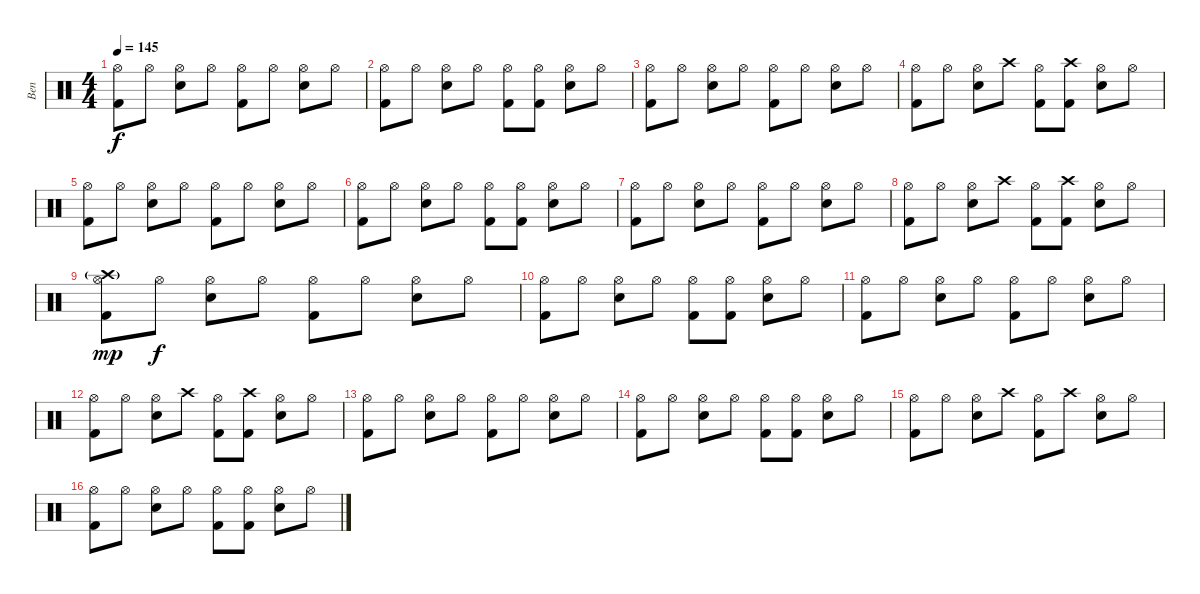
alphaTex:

\track ("Ben" "Ben") {instrument percussion}
\staff {score}
\articulation defaults
\ts (4 4)
\tempo 145
\clef neutral
\ks c
("Hi-Hat (open)" "Kick (hit) 2").8{dy f} "Hi-Hat (open)".8 ("Hi-Hat (open)" "Electric Snare (hit)").8 "Hi-Hat (open)".8 ("Hi-Hat (open)" "Kick (hit) 2").8 "Hi-Hat (open)".8 ("Hi-Hat (open)" "Electric Snare (hit)").8 "Hi-Hat (open)".8 |
("Hi-Hat (open)" "Kick (hit) 2").8 "Hi-Hat (open)".8 ("Hi-Hat (open)" "Electric Snare (hit)").8 "Hi-Hat (open)".8 ("Hi-Hat (open)" "Kick (hit) 2").8 ("Hi-Hat (open)" "Kick (hit) 2").8 ("Hi-Hat (open)" "Electric Snare (hit)").8 "Hi-Hat (open)".8 |
("Hi-Hat (open)" "Kick (hit) 2").8 "Hi-Hat (open)".8 ("Hi-Hat (open)" "Electric Snare (hit)").8 "Hi-Hat (open)".8 ("Hi-Hat (open)" "Kick (hit) 2").8 "Hi-Hat (open)".8 ("Hi-Hat (open)" "Electric Snare (hit)").8 "Hi-Hat (open)".8 |
("Hi-Hat (open)" "Kick (hit) 2").8 "Hi-Hat (open)".8 ("Hi-Hat (open)" "Electric Snare (hit)").8 "Crash high (hit)".8 ("Hi-Hat (open)" "Kick (hit) 2").8 ("Crash high (hit)" "Kick (hit) 2").8 ("Hi-Hat (open)" "Electric Snare (hit)").8 "Hi-Hat (open)".8 |
("Hi-Hat (open)" "Kick (hit) 2").8 "Hi-Hat (open)".8 ("Hi-Hat (open)" "Electric Snare (hit)").8 "Hi-Hat (open)".8 ("Hi-Hat (open)" "Kick (hit) 2").8 "Hi-Hat (open)".8 ("Hi-Hat (open)" "Electric Snare (hit)").8 "Hi-Hat (open)".8 |
("Hi-Hat (open)" "Kick (hit) 2").8 "Hi-Hat (open)".8 ("Hi-Hat (open)" "Electric Snare (hit)").8 "Hi-Hat (open)".8 ("Hi-Hat (open)" "Kick (hit) 2").8 ("Hi-Hat (open)" "Kick (hit) 2").8 ("Hi-Hat (open)" "Electric Snare (hit)").8 "Hi-Hat (open)".8 |
("Hi-Hat (open)" "Kick (hit) 2").8 "Hi-Hat (open)".8 ("Hi-Hat (open)" "Electric Snare (hit)").8 "Hi-Hat (open)".8 ("Hi-Hat (open)" "Kick (hit) 2").8 "Hi-Hat (open)".8 ("Hi-Hat (open)" "Electric Snare (hit)").8 "Hi-Hat (open)".8 |
("Hi-Hat (open)" "Kick (hit) 2").8 "Hi-Hat (open)".8 ("Hi-Hat (open)" "Electric Snare (hit)").8 "Crash high (hit)".8 ("Hi-Hat (open)" "Kick (hit) 2").8 ("Crash high (hit)" "Kick (hit) 2").8 ("Hi-Hat (open)" "Electric Snare (hit)").8 "Hi-Hat (open)".8 |
("Crash high (hit)"{g} "Hi-Hat (open)" "Kick (hit) 2").8{dy mp} "Hi-Hat (open)".8{dy f} ("Hi-Hat (open)" "Electric Snare (hit)").8 "Hi-Hat (open)".8 ("Hi-Hat (open)" "Kick (hit) 2").8 "Hi-Hat (open)".8 ("Hi-Hat (open)" "Electric Snare (hit)").8 "Hi-Hat (open)".8 |
("Hi-Hat (open)" "Kick (hit) 2").8 "Hi-Hat (open)".8 ("Hi-Hat (open)" "Electric Snare (hit)").8 "Hi-Hat (open)".8 ("Hi-Hat (open)" "Kick (hit) 2").8 ("Hi-Hat (open)" "Kick (hit) 2").8 ("Hi-Hat (open)" "Electric Snare (hit)").8 "Hi-Hat (open)".8 |
("Hi-Hat (open)" "Kick (hit) 2").8 "Hi-Hat (open)".8 ("Hi-Hat (open)" "Electric Snare (hit)").8 "Hi-Hat (open)".8 ("Hi-Hat (open)" "Kick (hit) 2").8 "Hi-Hat (open)".8 ("Hi-Hat (open)" "Electric Snare (hit)").8 "Hi-Hat (open)".8 |
("Hi-Hat (open)" "Kick (hit) 2").8 "Hi-Hat (open)".8 ("Hi-Hat (open)" "Electric Snare (hit)").8 "Crash high (hit)".8 ("Hi-Hat (open)" "Kick (hit) 2").8 ("Crash high (hit)" "Kick (hit) 2").8 ("Hi-Hat (open)" "Electric Snare (hit)").8 "Hi-Hat (open)".8 |
("Hi-Hat (open)" "Kick (hit) 2").8 "Hi-Hat (open)".8 ("Hi-Hat (open)" "Electric Snare (hit)").8 "Hi-Hat (open)".8 ("Hi-Hat (open)" "Kick (hit) 2").8 "Hi-Hat (open)".8 ("Hi-Hat (open)" "Electric Snare (hit)").8 "Hi-Hat (open)".8 |
("Hi-Hat (open)" "Kick (hit) 2").8 "Hi-Hat (open)".8 ("Hi-Hat (open)" "Electric Snare (hit)").8 "Hi-Hat (open)".8 ("Hi-Hat (open)" "Kick (hit) 2").8 ("Hi-Hat (open)" "Kick (hit) 2").8 ("Hi-Hat (open)" "Electric Snare (hit)").8 "Hi-Hat (open)".8 |
("Hi-Hat (open)" "Kick (hit) 2").8 "Hi-Hat (open)".8 ("Hi-Hat (open)" "Electric Snare (hit)").8 "Crash high (hit)".8 ("Hi-Hat (open)" "Kick (hit) 2").8 "Crash high (hit)".8 ("Hi-Hat (open)" "Electric Snare (hit)").8 "Hi-Hat (open)".8 |
("Hi-Hat (open)" "Kick (hit) 2").8 "Hi-Hat (open)".8 ("Hi-Hat (open)" "Electric Snare (hit)").8 "Hi-Hat (open)".8 ("Hi-Hat (open)" "Kick (hit) 2").8 ("Hi-Hat (open)" "Kick (hit) 2").8 ("Hi-Hat (open)" "Electric Snare (hit)").8 "Hi-Hat (open)".8
